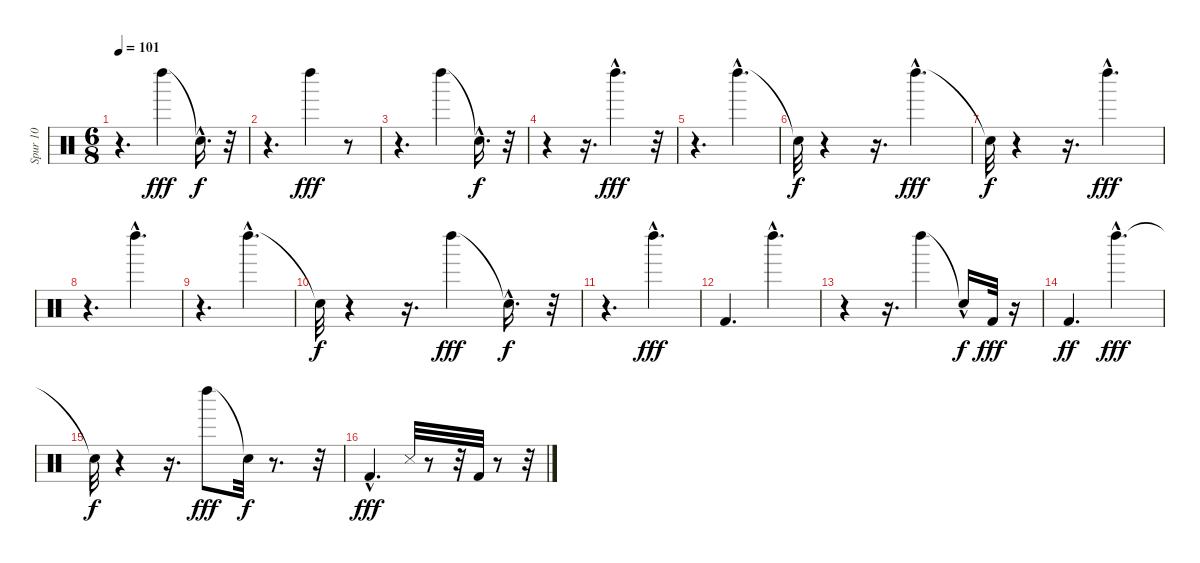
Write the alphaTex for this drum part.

\track ("Spur 10" "Spur 10") {instrument percussion}
\staff {score}
\articulation defaults
\ts (6 8)
\tempo 101
\clef neutral
\ks c
r.4{d dy fff} "Left Maraca (hit)".4 "Snare (hit)"{hac t}.16{d dy f} r.32 |
r.4{d} "Left Maraca (hit)".4{dy fff} r.8 |
r.4{d} "Left Maraca (hit)".4 "Snare (hit)"{hac t}.16{d dy f} r.32 |
r.4 r.16{d} "Left Maraca (hit)"{hac}.4{d dy fff} r.32 |
r.4{d} "Left Maraca (hit)"{hac}.4{d} |
"Snare (hit)"{t}.32{dy f} r.4 r.16{d} "Left Maraca (hit)"{hac}.4{d dy fff} |
"Snare (hit)"{t}.32{dy f} r.4 r.16{d} "Left Maraca (hit)"{hac}.4{d dy fff} |
r.4{d} "Left Maraca (hit)"{hac}.4{d} |
r.4{d} "Left Maraca (hit)"{hac}.4{d} |
"Snare (hit)"{t}.32{dy f} r.4 r.16{d} "Left Maraca (hit)".4{dy fff} "Snare (hit)"{hac t}.16{d dy f} r.32 |
r.4{d} "Left Maraca (hit)"{hac}.4{d dy fff} |
"Kick (hit) 2".4{d} "Left Maraca (hit)"{hac}.4{d} |
r.4 r.16{d} "Left Maraca (hit)".4 "Snare (hit)"{hac t}.16{dy f} "Kick (hit) 2".32{dy fff} r.16 |
"Kick (hit) 2".4{d dy ff} "Left Maraca (hit)"{hac}.4{d dy fff} |
"Snare (hit)"{t}.32{dy f} r.4 r.16{d} "Left Maraca (hit)".8{dy fff} "Snare (hit)"{t}.32{dy f} r.8{d} r.32 |
"Kick (hit) 2"{hac}.4{d dy fff} "Snare (side stick) 3".32 r.8 r.32 "Kick (hit) 2".32 r.8 r.32
